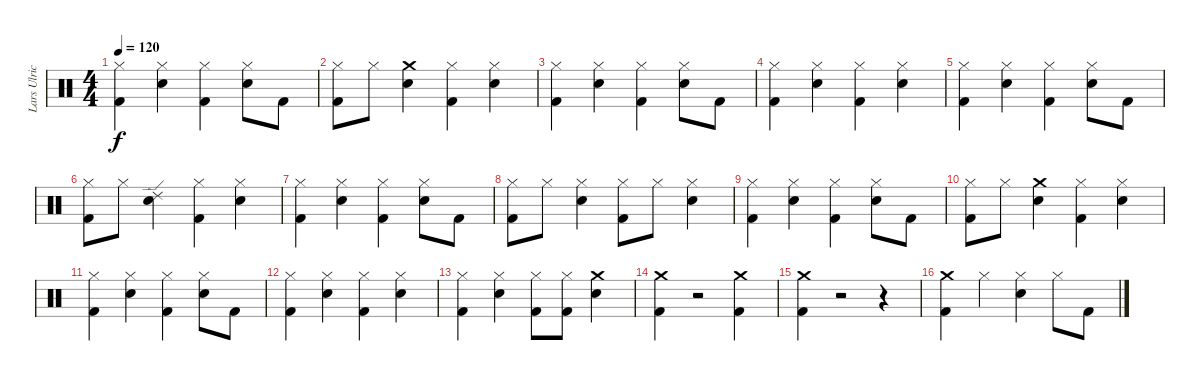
\track ("Lars Ulrich (Drums)" "Lars Ulric") {instrument percussion}
\staff {score}
\articulation defaults
\ts (4 4)
\tempo 120
\clef neutral
\ks c
("Hi-Hat (closed)" "Kick (hit) 2").4{dy f} ("Hi-Hat (closed)" "Snare (hit) 2").4 ("Hi-Hat (closed)" "Kick (hit) 2").4 ("Snare (hit) 2" "Hi-Hat (closed)").8 "Kick (hit) 2".8 |
("Hi-Hat (closed)" "Kick (hit) 2").8 "Hi-Hat (closed)".8 ("Snare (hit) 2" "Crash medium (hit)").4 ("Hi-Hat (closed)" "Kick (hit) 2").4 ("Hi-Hat (closed)" "Snare (hit) 2").4 |
("Kick (hit) 2" "Hi-Hat (closed)").4 ("Snare (hit) 2" "Hi-Hat (closed)").4 ("Kick (hit) 2" "Hi-Hat (closed)").4 ("Snare (hit) 2" "Hi-Hat (closed)").8 "Kick (hit) 2".8 |
("Hi-Hat (closed)" "Kick (hit) 2").4 ("Snare (hit) 2" "Hi-Hat (closed)").4 ("Hi-Hat (closed)" "Kick (hit) 2").4 ("Snare (hit) 2" "Hi-Hat (closed)").4 |
("Hi-Hat (closed)" "Kick (hit) 2").4 ("Snare (hit) 2" "Hi-Hat (closed)").4 ("Hi-Hat (closed)" "Kick (hit) 2").4 ("Snare (hit) 2" "Hi-Hat (closed)").8 "Kick (hit) 2".8 |
("Kick (hit) 2" "Hi-Hat (closed)").8 "Hi-Hat (closed)".8 ("Ride (edge) 2" "Snare (hit) 2").4 ("Hi-Hat (closed)" "Kick (hit) 2").4 ("Snare (hit) 2" "Hi-Hat (closed)").4 |
("Hi-Hat (closed)" "Kick (hit) 2").4 ("Hi-Hat (closed)" "Snare (hit) 2").4 ("Hi-Hat (closed)" "Kick (hit) 2").4 ("Snare (hit) 2" "Hi-Hat (closed)").8 "Kick (hit) 2".8 |
("Kick (hit) 2" "Hi-Hat (closed)").8 "Hi-Hat (closed)".8 ("Hi-Hat (closed)" "Snare (hit) 2").4 ("Kick (hit) 2" "Hi-Hat (closed)").8 "Hi-Hat (closed)".8 ("Snare (hit) 2" "Hi-Hat (closed)").4 |
("Kick (hit) 2" "Hi-Hat (closed)").4 ("Snare (hit) 2" "Hi-Hat (closed)").4 ("Hi-Hat (closed)" "Kick (hit) 2").4 ("Hi-Hat (closed)" "Snare (hit) 2").8 "Kick (hit) 2".8 |
("Kick (hit) 2" "Hi-Hat (closed)").8 "Hi-Hat (closed)".8 ("Crash medium (hit)" "Snare (hit) 2").4 ("Kick (hit) 2" "Hi-Hat (closed)").4 ("Snare (hit) 2" "Hi-Hat (closed)").4 |
("Hi-Hat (closed)" "Kick (hit) 2").4 ("Snare (hit) 2" "Hi-Hat (closed)").4 ("Hi-Hat (closed)" "Kick (hit) 2").4 ("Snare (hit) 2" "Hi-Hat (closed)").8 "Kick (hit) 2".8 |
("Kick (hit) 2" "Hi-Hat (closed)").4 ("Snare (hit) 2" "Hi-Hat (closed)").4 ("Kick (hit) 2" "Hi-Hat (closed)").4 ("Snare (hit) 2" "Hi-Hat (closed)").4 |
("Hi-Hat (closed)" "Kick (hit) 2").4 ("Snare (hit) 2" "Hi-Hat (closed)").4 ("Hi-Hat (closed)" "Kick (hit) 2").8 ("Hi-Hat (closed)" "Kick (hit) 2").8 ("Crash medium (hit)" "Snare (hit) 2").4 |
("Kick (hit) 2" "Crash medium (hit)").4 r.2 ("Crash medium (hit)" "Kick (hit) 2").4 |
("Kick (hit) 2" "Crash medium (hit)").4 r.2 r.4 |
("Kick (hit) 2" "Crash medium (hit)").4 "Hi-Hat (closed)".4 ("Snare (hit) 2" "Hi-Hat (closed)").4 "Hi-Hat (closed)".8 "Kick (hit) 2".8
